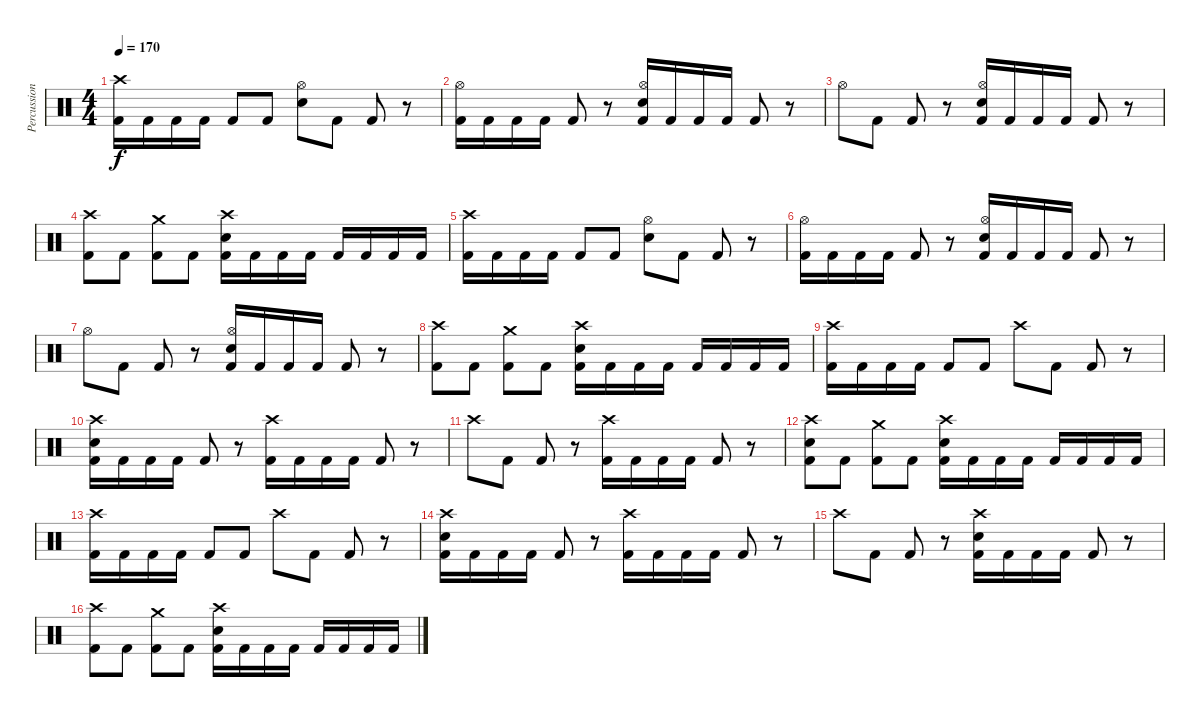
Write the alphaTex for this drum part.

\track ("Percussion" "Percussion") {instrument percussion}
\staff {score}
\articulation defaults
\ts (4 4)
\tempo 170
\clef neutral
\ks c
("Crash high (hit)" "Kick (hit) 2").16{dy f} "Kick (hit) 2".16 "Kick (hit) 2".16 "Kick (hit) 2".16 "Kick (hit) 2".8 "Kick (hit) 2".8 ("Hi-Hat (open)" "Snare (hit) 2").8 "Kick (hit) 2".8 "Kick (hit) 2".8 r.8 |
("Hi-Hat (open)" "Kick (hit) 2").16 "Kick (hit) 2".16 "Kick (hit) 2".16 "Kick (hit) 2".16 "Kick (hit) 2".8 r.8 ("Hi-Hat (open)" "Snare (hit) 2" "Kick (hit) 2").16 "Kick (hit) 2".16 "Kick (hit) 2".16 "Kick (hit) 2".16 "Kick (hit) 2".8 r.8 |
"Hi-Hat (open)".8 "Kick (hit) 2".8 "Kick (hit) 2".8 r.8 ("Hi-Hat (open)" "Snare (hit) 2" "Kick (hit) 2").16 "Kick (hit) 2".16 "Kick (hit) 2".16 "Kick (hit) 2".16 "Kick (hit) 2".8 r.8 |
("Crash high (hit)" "Kick (hit) 2").8 "Kick (hit) 2".8 ("Crash medium (hit)" "Kick (hit) 2").8 "Kick (hit) 2".8 ("Crash high (hit)" "Snare (hit) 2" "Kick (hit) 2").16 "Kick (hit) 2".16 "Kick (hit) 2".16 "Kick (hit) 2".16 "Kick (hit) 2".16 "Kick (hit) 2".16 "Kick (hit) 2".16 "Kick (hit) 2".16 |
("Crash high (hit)" "Kick (hit) 2").16 "Kick (hit) 2".16 "Kick (hit) 2".16 "Kick (hit) 2".16 "Kick (hit) 2".8 "Kick (hit) 2".8 ("Hi-Hat (open)" "Snare (hit) 2").8 "Kick (hit) 2".8 "Kick (hit) 2".8 r.8 |
("Hi-Hat (open)" "Kick (hit) 2").16 "Kick (hit) 2".16 "Kick (hit) 2".16 "Kick (hit) 2".16 "Kick (hit) 2".8 r.8 ("Hi-Hat (open)" "Snare (hit) 2" "Kick (hit) 2").16 "Kick (hit) 2".16 "Kick (hit) 2".16 "Kick (hit) 2".16 "Kick (hit) 2".8 r.8 |
"Hi-Hat (open)".8 "Kick (hit) 2".8 "Kick (hit) 2".8 r.8 ("Hi-Hat (open)" "Snare (hit) 2" "Kick (hit) 2").16 "Kick (hit) 2".16 "Kick (hit) 2".16 "Kick (hit) 2".16 "Kick (hit) 2".8 r.8 |
("Crash high (hit)" "Kick (hit) 2").8 "Kick (hit) 2".8 ("Crash medium (hit)" "Kick (hit) 2").8 "Kick (hit) 2".8 ("Crash high (hit)" "Snare (hit) 2" "Kick (hit) 2").16 "Kick (hit) 2".16 "Kick (hit) 2".16 "Kick (hit) 2".16 "Kick (hit) 2".16 "Kick (hit) 2".16 "Kick (hit) 2".16 "Kick (hit) 2".16 |
("Crash high (hit)" "Kick (hit) 2").16 "Kick (hit) 2".16 "Kick (hit) 2".16 "Kick (hit) 2".16 "Kick (hit) 2".8 "Kick (hit) 2".8 "Crash high (hit)".8 "Kick (hit) 2".8 "Kick (hit) 2".8 r.8 |
("Crash high (hit)" "Snare (hit) 2" "Kick (hit) 2").16 "Kick (hit) 2".16 "Kick (hit) 2".16 "Kick (hit) 2".16 "Kick (hit) 2".8 r.8 ("Crash high (hit)" "Kick (hit) 2").16 "Kick (hit) 2".16 "Kick (hit) 2".16 "Kick (hit) 2".16 "Kick (hit) 2".8 r.8 |
"Crash high (hit)".8 "Kick (hit) 2".8 "Kick (hit) 2".8 r.8 ("Crash high (hit)" "Kick (hit) 2").16 "Kick (hit) 2".16 "Kick (hit) 2".16 "Kick (hit) 2".16 "Kick (hit) 2".8 r.8 |
("Crash high (hit)" "Snare (hit) 2" "Kick (hit) 2").8 "Kick (hit) 2".8 ("Crash medium (hit)" "Kick (hit) 2").8 "Kick (hit) 2".8 ("Crash high (hit)" "Snare (hit) 2" "Kick (hit) 2").16 "Kick (hit) 2".16 "Kick (hit) 2".16 "Kick (hit) 2".16 "Kick (hit) 2".16 "Kick (hit) 2".16 "Kick (hit) 2".16 "Kick (hit) 2".16 |
("Crash high (hit)" "Kick (hit) 2").16 "Kick (hit) 2".16 "Kick (hit) 2".16 "Kick (hit) 2".16 "Kick (hit) 2".8 "Kick (hit) 2".8 "Crash high (hit)".8 "Kick (hit) 2".8 "Kick (hit) 2".8 r.8 |
("Crash high (hit)" "Snare (hit) 2" "Kick (hit) 2").16 "Kick (hit) 2".16 "Kick (hit) 2".16 "Kick (hit) 2".16 "Kick (hit) 2".8 r.8 ("Crash high (hit)" "Kick (hit) 2").16 "Kick (hit) 2".16 "Kick (hit) 2".16 "Kick (hit) 2".16 "Kick (hit) 2".8 r.8 |
"Crash high (hit)".8 "Kick (hit) 2".8 "Kick (hit) 2".8 r.8 ("Crash high (hit)" "Snare (hit) 2" "Kick (hit) 2").16 "Kick (hit) 2".16 "Kick (hit) 2".16 "Kick (hit) 2".16 "Kick (hit) 2".8 r.8 |
("Crash high (hit)" "Kick (hit) 2").8 "Kick (hit) 2".8 ("Crash medium (hit)" "Kick (hit) 2").8 "Kick (hit) 2".8 ("Crash high (hit)" "Snare (hit) 2" "Kick (hit) 2").16 "Kick (hit) 2".16 "Kick (hit) 2".16 "Kick (hit) 2".16 "Kick (hit) 2".16 "Kick (hit) 2".16 "Kick (hit) 2".16 "Kick (hit) 2".16
